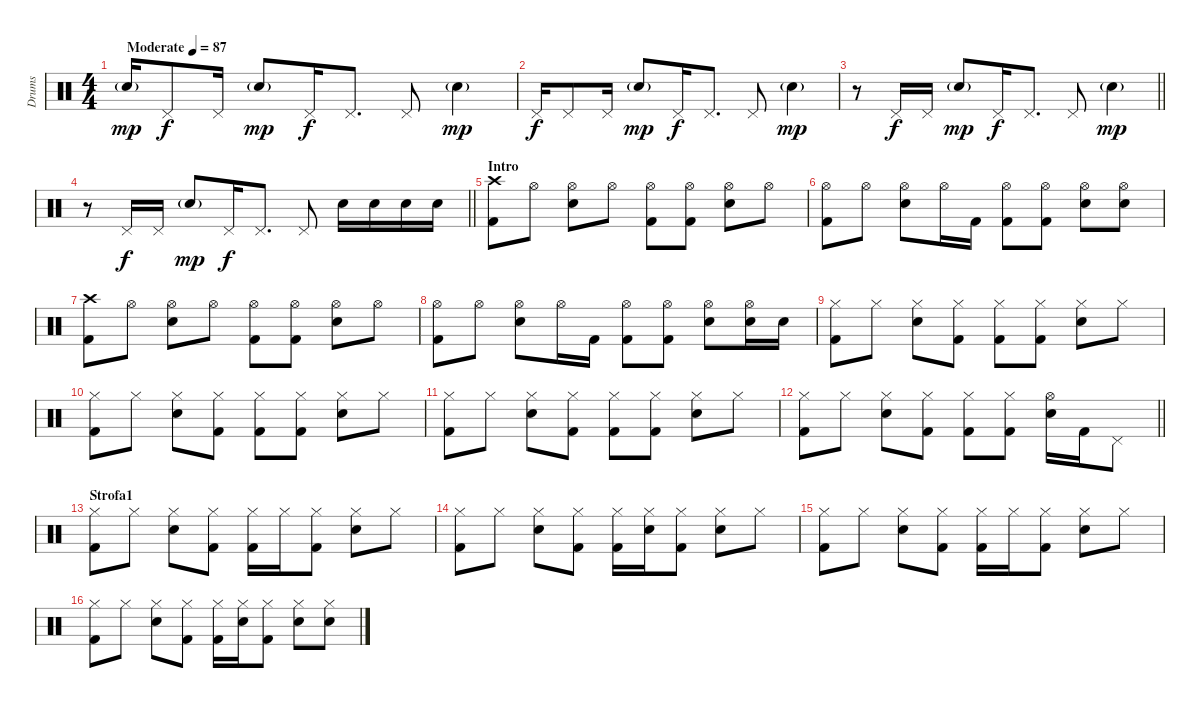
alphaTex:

\track ("Drums" "Drums") {instrument percussion}
\staff {score}
\articulation defaults
\ts (4 4)
\tempo (87 "Moderate")
\clef neutral
\ks c "Electric Snare (hit)"{g}.16{dy mp} "Pedal Hi-Hat (hit)".8{dy f} "Pedal Hi-Hat (hit)".16 "Electric Snare (hit)"{g}.8{dy mp} "Pedal Hi-Hat (hit)".16{dy f} "Pedal Hi-Hat (hit)".8{d} "Pedal Hi-Hat (hit)".8 "Electric Snare (hit)"{g}.4{dy mp}
|
"Pedal Hi-Hat (hit)".16{dy f} "Pedal Hi-Hat (hit)".8 "Pedal Hi-Hat (hit)".16 "Electric Snare (hit)"{g}.8{dy mp} "Pedal Hi-Hat (hit)".16{dy f} "Pedal Hi-Hat (hit)".8{d} "Pedal Hi-Hat (hit)".8 "Electric Snare (hit)"{g}.4{dy mp} |
\barLineRight lightlight
r.8 "Pedal Hi-Hat (hit)".16{dy f} "Pedal Hi-Hat (hit)".16 "Electric Snare (hit)"{g}.8{dy mp} "Pedal Hi-Hat (hit)".16{dy f} "Pedal Hi-Hat (hit)".8{d} "Pedal Hi-Hat (hit)".8 "Electric Snare (hit)"{g}.4{dy mp} |
\section ("" "")
\barLineRight lightlight
r.8 "Pedal Hi-Hat (hit)".16{dy f} "Pedal Hi-Hat (hit)".16 "Electric Snare (hit)"{g}.8{dy mp} "Pedal Hi-Hat (hit)".16{dy f} "Pedal Hi-Hat (hit)".8{d} "Pedal Hi-Hat (hit)".8 "Snare (hit) 2".16 "Snare (hit) 2".16 "Snare (hit) 2".16 "Snare (hit) 2".16 |
\section ("" "Intro")
("Crash high (hit)" "Kick (hit) 2").8 "Hi-Hat (open)".8 ("Hi-Hat (open)" "Snare (hit) 2").8 "Hi-Hat (open)".8 ("Hi-Hat (open)" "Kick (hit) 2").8 ("Hi-Hat (open)" "Kick (hit) 2").8 ("Hi-Hat (open)" "Snare (hit) 2").8 "Hi-Hat (open)".8 |
("Hi-Hat (open)" "Kick (hit) 2").8 "Hi-Hat (open)".8 ("Hi-Hat (open)" "Snare (hit) 2").8 "Hi-Hat (open)".16 "Kick (hit) 2".16 ("Hi-Hat (open)" "Kick (hit) 2").8 ("Hi-Hat (open)" "Kick (hit) 2").8 ("Hi-Hat (open)" "Snare (hit) 2").8 ("Hi-Hat (open)" "Snare (hit) 2").8 |
("Crash high (hit)" "Kick (hit) 2").8 "Hi-Hat (open)".8 ("Hi-Hat (open)" "Snare (hit) 2").8 "Hi-Hat (open)".8 ("Hi-Hat (open)" "Kick (hit) 2").8 ("Hi-Hat (open)" "Kick (hit) 2").8 ("Hi-Hat (open)" "Snare (hit) 2").8 "Hi-Hat (open)".8 |
("Hi-Hat (open)" "Kick (hit) 2").8 "Hi-Hat (open)".8 ("Hi-Hat (open)" "Snare (hit) 2").8 "Hi-Hat (open)".16 "Kick (hit) 2".16 ("Hi-Hat (open)" "Kick (hit) 2").8 ("Hi-Hat (open)" "Kick (hit) 2").8 ("Hi-Hat (open)" "Snare (hit) 2").8 ("Hi-Hat (open)" "Snare (hit) 2").16 "Snare (hit) 2".16 |
("Hi-Hat (closed)" "Kick (hit) 2").8 "Hi-Hat (closed)".8 ("Hi-Hat (closed)" "Electric Snare (hit)").8 ("Hi-Hat (closed)" "Kick (hit) 2").8 ("Hi-Hat (closed)" "Kick (hit) 2").8 ("Hi-Hat (closed)" "Kick (hit) 2").8 ("Hi-Hat (closed)" "Electric Snare (hit)").8 "Hi-Hat (closed)".8 |
("Hi-Hat (closed)" "Kick (hit) 2").8 "Hi-Hat (closed)".8 ("Hi-Hat (closed)" "Electric Snare (hit)").8 ("Hi-Hat (closed)" "Kick (hit) 2").8 ("Hi-Hat (closed)" "Kick (hit) 2").8 ("Hi-Hat (closed)" "Kick (hit) 2").8 ("Hi-Hat (closed)" "Electric Snare (hit)").8 "Hi-Hat (closed)".8 |
("Hi-Hat (closed)" "Kick (hit) 2").8 "Hi-Hat (closed)".8 ("Hi-Hat (closed)" "Electric Snare (hit)").8 ("Hi-Hat (closed)" "Kick (hit) 2").8 ("Hi-Hat (closed)" "Kick (hit) 2").8 ("Hi-Hat (closed)" "Kick (hit) 2").8 ("Hi-Hat (closed)" "Electric Snare (hit)").8 "Hi-Hat (closed)".8 |
\barLineRight lightlight
("Hi-Hat (closed)" "Kick (hit) 2").8 "Hi-Hat (closed)".8 ("Hi-Hat (closed)" "Electric Snare (hit)").8 ("Hi-Hat (closed)" "Kick (hit) 2").8 ("Hi-Hat (closed)" "Kick (hit) 2").8 ("Hi-Hat (closed)" "Kick (hit) 2").8 ("Hi-Hat (open)" "Electric Snare (hit)").16 "Kick (hit) 2".16 "Pedal Hi-Hat (hit)".8 |
\section ("" "Strofa1")
("Hi-Hat (closed)" "Kick (hit) 2").8 "Hi-Hat (closed)".8 ("Hi-Hat (closed)" "Electric Snare (hit)").8 ("Hi-Hat (closed)" "Kick (hit) 2").8 ("Hi-Hat (closed)" "Kick (hit) 2").16 "Hi-Hat (closed)".16 ("Hi-Hat (closed)" "Kick (hit) 2").8 ("Hi-Hat (closed)" "Electric Snare (hit)").8 "Hi-Hat (closed)".8 |
("Hi-Hat (closed)" "Kick (hit) 2").8 "Hi-Hat (closed)".8 ("Hi-Hat (closed)" "Electric Snare (hit)").8 ("Hi-Hat (closed)" "Kick (hit) 2").8 ("Hi-Hat (closed)" "Kick (hit) 2").16 ("Hi-Hat (closed)" "Electric Snare (hit)").16 ("Hi-Hat (closed)" "Kick (hit) 2").8 ("Hi-Hat (closed)" "Electric Snare (hit)").8 "Hi-Hat (closed)".8 |
("Hi-Hat (closed)" "Kick (hit) 2").8 "Hi-Hat (closed)".8 ("Hi-Hat (closed)" "Electric Snare (hit)").8 ("Hi-Hat (closed)" "Kick (hit) 2").8 ("Hi-Hat (closed)" "Kick (hit) 2").16 "Hi-Hat (closed)".16 ("Hi-Hat (closed)" "Kick (hit) 2").8 ("Hi-Hat (closed)" "Electric Snare (hit)").8 "Hi-Hat (closed)".8 |
("Hi-Hat (closed)" "Kick (hit) 2").8 "Hi-Hat (closed)".8 ("Hi-Hat (closed)" "Electric Snare (hit)").8 ("Hi-Hat (closed)" "Kick (hit) 2").8 ("Hi-Hat (closed)" "Kick (hit) 2").16 ("Hi-Hat (closed)" "Electric Snare (hit)").16 ("Hi-Hat (closed)" "Kick (hit) 2").8 ("Hi-Hat (closed)" "Electric Snare (hit)").8 ("Hi-Hat (closed)" "Electric Snare (hit)").8
